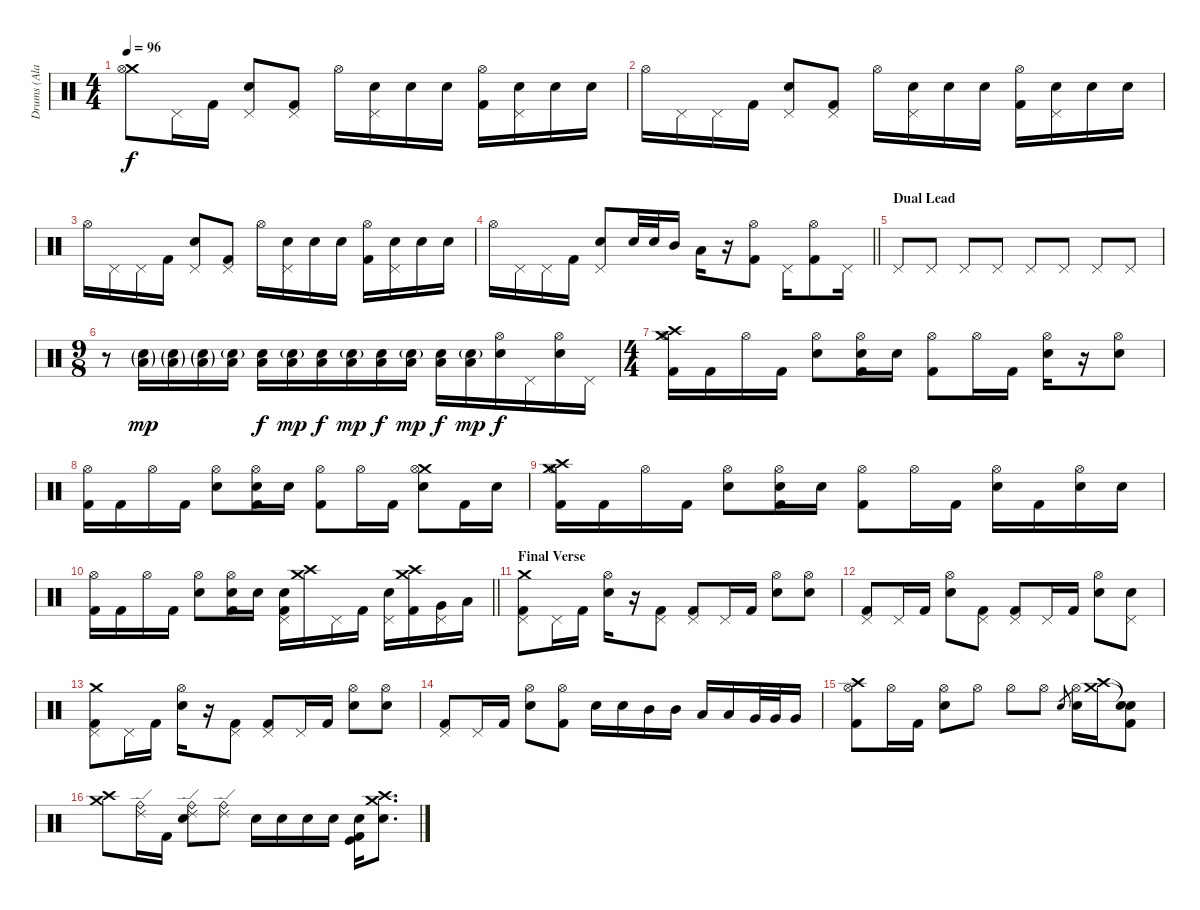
\track ("Drums (Ala Pyle)" "Drums (Ala") {instrument percussion}
\staff {score}
\articulation defaults
\ts (4 4)
\tempo 96
\clef neutral
\ks c
("Crash medium (hit)" "Hi-Hat (open)").8{dy f} "Pedal Hi-Hat (hit)".16 "Kick (hit) 2".16 ("Electric Snare (hit)" "Pedal Hi-Hat (hit)").8 ("Pedal Hi-Hat (hit)" "Kick (hit) 2").8 "Hi-Hat (open)".16 ("Electric Snare (hit)" "Pedal Hi-Hat (hit)").16 "Electric Snare (hit)".16 "Electric Snare (hit)".16 ("Hi-Hat (open)" "Kick (hit) 2").16 ("Electric Snare (hit)" "Pedal Hi-Hat (hit)").16 "Electric Snare (hit)".16 "Electric Snare (hit)".16 |
"Hi-Hat (open)".16 "Pedal Hi-Hat (hit)".16 "Pedal Hi-Hat (hit)".16 "Kick (hit) 2".16 ("Electric Snare (hit)" "Pedal Hi-Hat (hit)").8 ("Pedal Hi-Hat (hit)" "Kick (hit) 2").8 "Hi-Hat (open)".16 ("Electric Snare (hit)" "Pedal Hi-Hat (hit)").16 "Electric Snare (hit)".16 "Electric Snare (hit)".16 ("Hi-Hat (open)" "Kick (hit) 2").16 ("Electric Snare (hit)" "Pedal Hi-Hat (hit)").16 "Electric Snare (hit)".16 "Electric Snare (hit)".16 |
"Hi-Hat (open)".16 "Pedal Hi-Hat (hit)".16 "Pedal Hi-Hat (hit)".16 "Kick (hit) 2".16 ("Electric Snare (hit)" "Pedal Hi-Hat (hit)").8 ("Pedal Hi-Hat (hit)" "Kick (hit) 2").8 "Hi-Hat (open)".16 ("Electric Snare (hit)" "Pedal Hi-Hat (hit)").16 "Electric Snare (hit)".16 "Electric Snare (hit)".16 ("Hi-Hat (open)" "Kick (hit) 2").16 ("Electric Snare (hit)" "Pedal Hi-Hat (hit)").16 "Electric Snare (hit)".16 "Electric Snare (hit)".16 |
\barLineRight lightlight "Hi-Hat (open)".16 "Pedal Hi-Hat (hit)".16 "Pedal Hi-Hat (hit)".16 "Kick (hit) 2".16
("Electric Snare (hit)" "Pedal Hi-Hat (hit)").8 "Electric Snare (hit)".32 "Electric Snare (hit)".32 "Mid Tom (hit)".16 "Low Tom (hit)".16 r.16 ("Hi-Hat (open)" "Kick (hit) 2").8 "Pedal Hi-Hat (hit)".16 ("Hi-Hat (open)" "Kick (hit) 2").8 "Pedal Hi-Hat (hit)".16 |
\section ("" "Dual Lead")
"Pedal Hi-Hat (hit)".8 "Pedal Hi-Hat (hit)".8 "Pedal Hi-Hat (hit)".8 "Pedal Hi-Hat (hit)".8 "Pedal Hi-Hat (hit)".8 "Pedal Hi-Hat (hit)".8 "Pedal Hi-Hat (hit)".8 "Pedal Hi-Hat (hit)".8 |
\ts (9 8)
r.8 ("Electric Snare (hit)"{g} "Low Floor Tom (hit)"{g}).16{dy mp} ("Electric Snare (hit)"{g} "Low Floor Tom (hit)"{g}).16 ("Electric Snare (hit)"{g} "Low Floor Tom (hit)"{g}).16 ("Electric Snare (hit)"{g} "Low Floor Tom (hit)").16 ("Electric Snare (hit)" "Low Floor Tom (hit)").16{dy f} ("Electric Snare (hit)"{g} "Low Floor Tom (hit)").16{dy mp} ("Electric Snare (hit)" "Low Floor Tom (hit)").16{dy f} ("Electric Snare (hit)"{g} "Low Floor Tom (hit)").16{dy mp} ("Electric Snare (hit)" "Low Floor Tom (hit)").16{dy f} ("Electric Snare (hit)"{g} "Low Floor Tom (hit)").16{dy mp} ("Electric Snare (hit)" "Low Floor Tom (hit)").16{dy f} ("Electric Snare (hit)"{g} "Low Floor Tom (hit)").16{dy mp} ("Electric Snare (hit)" "Hi-Hat (open)").16{dy f} "Pedal Hi-Hat (hit)".16 ("Electric Snare (hit)" "Hi-Hat (open)").16 "Pedal Hi-Hat (hit)".16 |
\ts (4 4)
("Crash medium (hit)" "Crash high (hit)" "Hi-Hat (open)" "Kick (hit) 2").16 "Kick (hit) 2".16 "Hi-Hat (open)".16 "Kick (hit) 2".16 ("Hi-Hat (open)" "Electric Snare (hit)").8 ("Hi-Hat (open)" "Electric Snare (hit)" "Kick (hit) 2").16 "Electric Snare (hit)".16 ("Hi-Hat (open)" "Kick (hit) 2").8 "Hi-Hat (open)".16 "Kick (hit) 2".16 ("Hi-Hat (open)" "Electric Snare (hit)").16 r.16 ("Hi-Hat (open)" "Electric Snare (hit)").8 |
("Hi-Hat (open)" "Kick (hit) 2").16 "Kick (hit) 2".16 "Hi-Hat (open)".16 "Kick (hit) 2".16 ("Hi-Hat (open)" "Electric Snare (hit)").8 ("Hi-Hat (open)" "Electric Snare (hit)" "Kick (hit) 2").16 "Electric Snare (hit)".16 ("Hi-Hat (open)" "Kick (hit) 2").8 "Hi-Hat (open)".16 "Kick (hit) 2".16 ("Crash medium (hit)" "Hi-Hat (open)" "Electric Snare (hit)").8 "Kick (hit) 2".16 "Electric Snare (hit)".16 |
("Crash high (hit)" "Crash medium (hit)" "Hi-Hat (open)" "Kick (hit) 2").16 "Kick (hit) 2".16 "Hi-Hat (open)".16 "Kick (hit) 2".16 ("Hi-Hat (open)" "Electric Snare (hit)").8 ("Hi-Hat (open)" "Electric Snare (hit)" "Kick (hit) 2").16 "Electric Snare (hit)".16 ("Hi-Hat (open)" "Kick (hit) 2").8 "Hi-Hat (open)".16 "Kick (hit) 2".16 ("Hi-Hat (open)" "Electric Snare (hit)").16 "Kick (hit) 2".16 ("Hi-Hat (open)" "Electric Snare (hit)").16 "Electric Snare (hit)".16 |
\barLineRight lightlight
("Hi-Hat (open)" "Kick (hit) 2").16 "Kick (hit) 2".16 "Hi-Hat (open)".16 "Kick (hit) 2".16 ("Hi-Hat (open)" "Electric Snare (hit)").8 ("Hi-Hat (open)" "Electric Snare (hit)" "Kick (hit) 2").16 "Electric Snare (hit)".16 ("Pedal Hi-Hat (hit)" "Electric Snare (hit)" "Kick (hit) 2").16 ("Crash medium (hit)" "Crash high (hit)").16 "Pedal Hi-Hat (hit)".16 "Kick (hit) 2".16 ("Pedal Hi-Hat (hit)" "Electric Snare (hit)").16 ("Crash high (hit)" "Crash medium (hit)" "Kick (hit) 2").16 ("Pedal Hi-Hat (hit)" "Very Low Tom (hit)").16 "Low Floor Tom (hit)".16 |
\section ("" "Final Verse")
("Crash medium (hit)" "Pedal Hi-Hat (hit)" "Kick (hit) 2").8 "Pedal Hi-Hat (hit)".16 "Kick (hit) 2".16 ("Electric Snare (hit)" "Hi-Hat (open)").16 r.16 ("Pedal Hi-Hat (hit)" "Kick (hit) 2").8 ("Pedal Hi-Hat (hit)" "Kick (hit) 2").8 "Pedal Hi-Hat (hit)".16 "Kick (hit) 2".16 ("Electric Snare (hit)" "Hi-Hat (open)").8 ("Electric Snare (hit)" "Hi-Hat (open)").8 |
("Pedal Hi-Hat (hit)" "Kick (hit) 2").8 "Pedal Hi-Hat (hit)".16 "Kick (hit) 2".16 ("Electric Snare (hit)" "Hi-Hat (open)").8 ("Pedal Hi-Hat (hit)" "Kick (hit) 2").8 ("Pedal Hi-Hat (hit)" "Kick (hit) 2").8 "Pedal Hi-Hat (hit)".16 "Kick (hit) 2".16 ("Electric Snare (hit)" "Hi-Hat (open)").8 ("Electric Snare (hit)" "Pedal Hi-Hat (hit)").8 |
("Crash medium (hit)" "Pedal Hi-Hat (hit)" "Kick (hit) 2").8 "Pedal Hi-Hat (hit)".16 "Kick (hit) 2".16 ("Electric Snare (hit)" "Hi-Hat (open)").16 r.16 ("Pedal Hi-Hat (hit)" "Kick (hit) 2").8 ("Pedal Hi-Hat (hit)" "Kick (hit) 2").8 "Pedal Hi-Hat (hit)".16 "Kick (hit) 2".16 ("Electric Snare (hit)" "Hi-Hat (open)").8 ("Electric Snare (hit)" "Hi-Hat (open)").8 |
("Pedal Hi-Hat (hit)" "Kick (hit) 2").8 "Pedal Hi-Hat (hit)".16 "Kick (hit) 2".16 ("Electric Snare (hit)" "Hi-Hat (open)").8 ("Hi-Hat (open)" "Kick (hit) 2").8 "Electric Snare (hit)".16 "Electric Snare (hit)".16 "Mid Tom (hit)".16 "Mid Tom (hit)".16 "Low Tom (hit)".16 "Low Tom (hit)".16 "Very Low Tom (hit)".32 "Very Low Tom (hit)".32 "Very Low Tom (hit)".16 |
("Crash high (hit)" "Hi-Hat (open)" "Kick (hit) 2").8 "Hi-Hat (open)".16 "Kick (hit) 2".16 ("Electric Snare (hit)" "Hi-Hat (open)").8 "Hi-Hat (open)".8 "Hi-Hat (open)".8 "Hi-Hat (open)".8 "Electric Snare (hit)".8{gr} ("Electric Snare (hit)" "Hi-Hat (open)").16 ("Crash high (hit)" "Crash medium (hit)").16 ("Snare (hit)"{t} "Snare (hit)"{t} "Kick (hit) 2").8 |
("Crash high (hit)" "Crash medium (hit)").8 ("Ride (bell)" "Ride (edge) 2").16 "Kick (hit) 2".16 ("Ride (bell)" "Ride (edge) 2" "Electric Snare (hit)").8 ("Ride (bell)" "Ride (edge) 2").8 "Electric Snare (hit)".16 "Electric Snare (hit)".16 "Electric Snare (hit)".16 "Electric Snare (hit)".16 ("Electric Snare (hit)" "Kick (hit)" "Kick (hit) 2").16 ("Crash medium (hit)" "Crash high (hit)" "Electric Snare (hit)").8{d}
